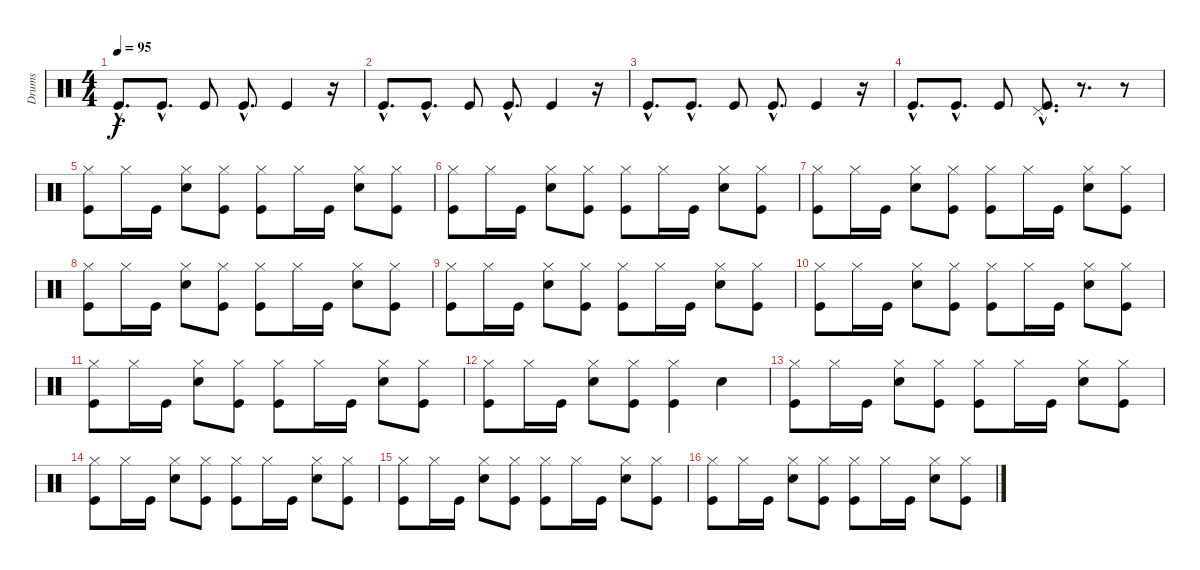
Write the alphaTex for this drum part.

\track ("Drums" "Drums") {instrument percussion}
\staff {score}
\articulation defaults
\ts (4 4)
\tempo 95
\clef neutral
\ks c "Kick (hit)"{hac}.8{d dy f} "Kick (hit)"{hac}.8{d} "Kick (hit)".8 "Kick (hit)"{hac}.8{d} "Kick (hit)".4
r.16 |
"Kick (hit)"{hac}.8{d} "Kick (hit)"{hac}.8{d} "Kick (hit)".8 "Kick (hit)"{hac}.8{d} "Kick (hit)".4 r.16 |
"Kick (hit)"{hac}.8{d} "Kick (hit)"{hac}.8{d} "Kick (hit)".8 "Kick (hit)"{hac}.8{d} "Kick (hit)".4 r.16 |
"Kick (hit)"{hac}.8{d} "Kick (hit)"{hac}.8{d} "Kick (hit)".8 ("Pedal Hi-Hat (hit)"{hac} "Kick (hit)"{hac}).8{d} r.8{d} r.8 |
("Hi-Hat (closed)" "Kick (hit)").8 "Hi-Hat (closed)".16 "Kick (hit)".16 ("Hi-Hat (closed)" "Electric Snare (hit)").8 ("Hi-Hat (closed)" "Kick (hit)").8 ("Hi-Hat (closed)" "Kick (hit)").8 "Hi-Hat (closed)".16 "Kick (hit)".16 ("Hi-Hat (closed)" "Electric Snare (hit)").8 ("Hi-Hat (closed)" "Kick (hit)").8 |
("Hi-Hat (closed)" "Kick (hit)").8 "Hi-Hat (closed)".16 "Kick (hit)".16 ("Hi-Hat (closed)" "Electric Snare (hit)").8 ("Hi-Hat (closed)" "Kick (hit)").8 ("Hi-Hat (closed)" "Kick (hit)").8 "Hi-Hat (closed)".16 "Kick (hit)".16 ("Hi-Hat (closed)" "Electric Snare (hit)").8 ("Hi-Hat (closed)" "Kick (hit)").8 |
("Hi-Hat (closed)" "Kick (hit)").8 "Hi-Hat (closed)".16 "Kick (hit)".16 ("Hi-Hat (closed)" "Electric Snare (hit)").8 ("Hi-Hat (closed)" "Kick (hit)").8 ("Hi-Hat (closed)" "Kick (hit)").8 "Hi-Hat (closed)".16 "Kick (hit)".16 ("Hi-Hat (closed)" "Electric Snare (hit)").8 ("Hi-Hat (closed)" "Kick (hit)").8 |
("Hi-Hat (closed)" "Kick (hit)").8 "Hi-Hat (closed)".16 "Kick (hit)".16 ("Hi-Hat (closed)" "Electric Snare (hit)").8 ("Hi-Hat (closed)" "Kick (hit)").8 ("Hi-Hat (closed)" "Kick (hit)").8 "Hi-Hat (closed)".16 "Kick (hit)".16 ("Hi-Hat (closed)" "Electric Snare (hit)").8 ("Hi-Hat (closed)" "Kick (hit)").8 |
("Hi-Hat (closed)" "Kick (hit)").8 "Hi-Hat (closed)".16 "Kick (hit)".16 ("Hi-Hat (closed)" "Electric Snare (hit)").8 ("Hi-Hat (closed)" "Kick (hit)").8 ("Hi-Hat (closed)" "Kick (hit)").8 "Hi-Hat (closed)".16 "Kick (hit)".16 ("Hi-Hat (closed)" "Electric Snare (hit)").8 ("Hi-Hat (closed)" "Kick (hit)").8 |
("Hi-Hat (closed)" "Kick (hit)").8 "Hi-Hat (closed)".16 "Kick (hit)".16 ("Hi-Hat (closed)" "Electric Snare (hit)").8 ("Hi-Hat (closed)" "Kick (hit)").8 ("Hi-Hat (closed)" "Kick (hit)").8 "Hi-Hat (closed)".16 "Kick (hit)".16 ("Hi-Hat (closed)" "Electric Snare (hit)").8 ("Hi-Hat (closed)" "Kick (hit)").8 |
("Hi-Hat (closed)" "Kick (hit)").8 "Hi-Hat (closed)".16 "Kick (hit)".16 ("Hi-Hat (closed)" "Electric Snare (hit)").8 ("Hi-Hat (closed)" "Kick (hit)").8 ("Hi-Hat (closed)" "Kick (hit)").8 "Hi-Hat (closed)".16 "Kick (hit)".16 ("Hi-Hat (closed)" "Electric Snare (hit)").8 ("Hi-Hat (closed)" "Kick (hit)").8 |
("Hi-Hat (closed)" "Kick (hit)").8 "Hi-Hat (closed)".16 "Kick (hit)".16 ("Hi-Hat (closed)" "Electric Snare (hit)").8 ("Hi-Hat (closed)" "Kick (hit)").8 ("Hi-Hat (closed)" "Kick (hit)").4 "Electric Snare (hit)".4 |
("Hi-Hat (closed)" "Kick (hit)").8 "Hi-Hat (closed)".16 "Kick (hit)".16 ("Hi-Hat (closed)" "Electric Snare (hit)").8 ("Hi-Hat (closed)" "Kick (hit)").8 ("Hi-Hat (closed)" "Kick (hit)").8 "Hi-Hat (closed)".16 "Kick (hit)".16 ("Hi-Hat (closed)" "Electric Snare (hit)").8 ("Hi-Hat (closed)" "Kick (hit)").8 |
("Hi-Hat (closed)" "Kick (hit)").8 "Hi-Hat (closed)".16 "Kick (hit)".16 ("Hi-Hat (closed)" "Electric Snare (hit)").8 ("Hi-Hat (closed)" "Kick (hit)").8 ("Hi-Hat (closed)" "Kick (hit)").8 "Hi-Hat (closed)".16 "Kick (hit)".16 ("Hi-Hat (closed)" "Electric Snare (hit)").8 ("Hi-Hat (closed)" "Kick (hit)").8 |
("Hi-Hat (closed)" "Kick (hit)").8 "Hi-Hat (closed)".16 "Kick (hit)".16 ("Hi-Hat (closed)" "Electric Snare (hit)").8 ("Hi-Hat (closed)" "Kick (hit)").8 ("Hi-Hat (closed)" "Kick (hit)").8 "Hi-Hat (closed)".16 "Kick (hit)".16 ("Hi-Hat (closed)" "Electric Snare (hit)").8 ("Hi-Hat (closed)" "Kick (hit)").8 |
("Hi-Hat (closed)" "Kick (hit)").8 "Hi-Hat (closed)".16 "Kick (hit)".16 ("Hi-Hat (closed)" "Electric Snare (hit)").8 ("Hi-Hat (closed)" "Kick (hit)").8 ("Hi-Hat (closed)" "Kick (hit)").8 "Hi-Hat (closed)".16 "Kick (hit)".16 ("Hi-Hat (closed)" "Electric Snare (hit)").8 ("Hi-Hat (closed)" "Kick (hit)").8
